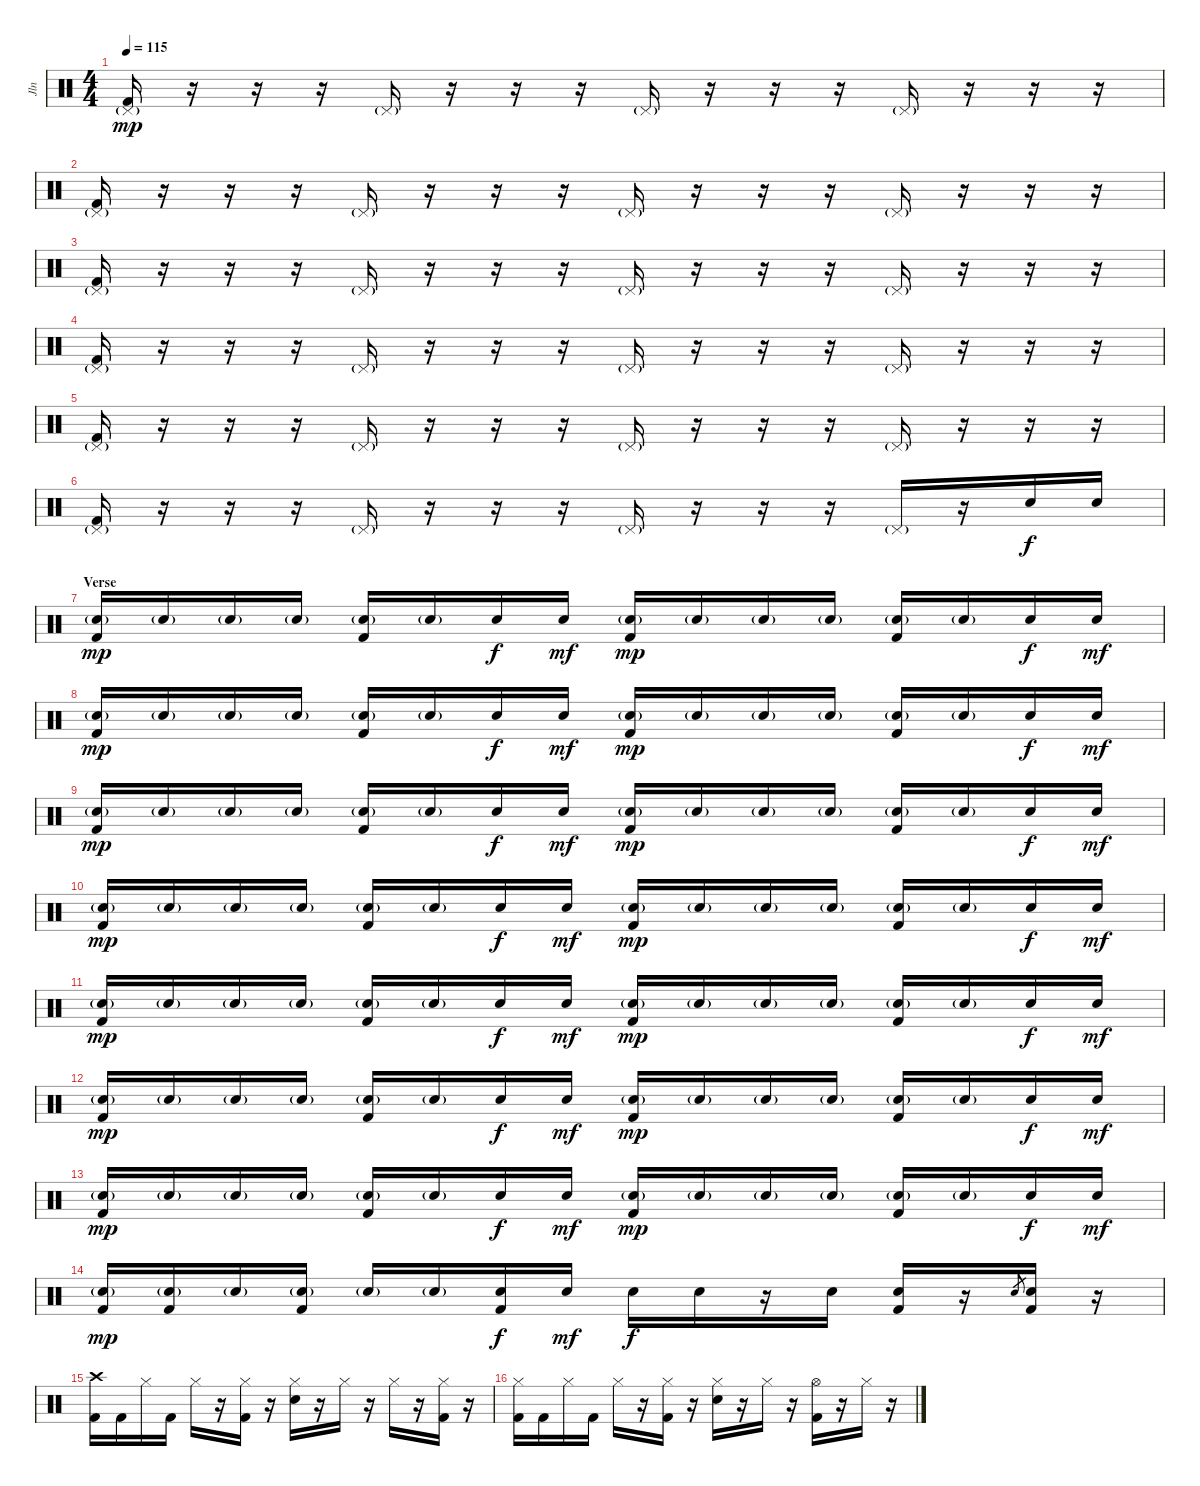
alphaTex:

\track ("Jln" "Jln") {instrument percussion}
\staff {score}
\articulation defaults
\ts (4 4)
\tempo 115
\clef neutral
\ks c
("Pedal Hi-Hat (hit)"{g} "Kick (hit) 2").16{dy mp} r.16 r.16 r.16 "Pedal Hi-Hat (hit)"{g}.16 r.16 r.16 r.16 "Pedal Hi-Hat (hit)"{g}.16 r.16 r.16 r.16 "Pedal Hi-Hat (hit)"{g}.16 r.16 r.16 r.16 |
("Pedal Hi-Hat (hit)"{g} "Kick (hit) 2").16 r.16 r.16 r.16 "Pedal Hi-Hat (hit)"{g}.16 r.16 r.16 r.16 "Pedal Hi-Hat (hit)"{g}.16 r.16 r.16 r.16 "Pedal Hi-Hat (hit)"{g}.16 r.16 r.16 r.16 |
("Pedal Hi-Hat (hit)"{g} "Kick (hit) 2").16 r.16 r.16 r.16 "Pedal Hi-Hat (hit)"{g}.16 r.16 r.16 r.16 "Pedal Hi-Hat (hit)"{g}.16 r.16 r.16 r.16 "Pedal Hi-Hat (hit)"{g}.16 r.16 r.16 r.16 |
("Pedal Hi-Hat (hit)"{g} "Kick (hit) 2").16 r.16 r.16 r.16 "Pedal Hi-Hat (hit)"{g}.16 r.16 r.16 r.16 "Pedal Hi-Hat (hit)"{g}.16 r.16 r.16 r.16 "Pedal Hi-Hat (hit)"{g}.16 r.16 r.16 r.16 |
("Pedal Hi-Hat (hit)"{g} "Kick (hit) 2").16 r.16 r.16 r.16 "Pedal Hi-Hat (hit)"{g}.16 r.16 r.16 r.16 "Pedal Hi-Hat (hit)"{g}.16 r.16 r.16 r.16 "Pedal Hi-Hat (hit)"{g}.16 r.16 r.16 r.16 |
("Pedal Hi-Hat (hit)"{g} "Kick (hit) 2").16 r.16 r.16 r.16 "Pedal Hi-Hat (hit)"{g}.16 r.16 r.16 r.16 "Pedal Hi-Hat (hit)"{g}.16 r.16 r.16 r.16 "Pedal Hi-Hat (hit)"{g}.16 r.16 "Electric Snare (hit)".16{dy f} "Electric Snare (hit)".16 |
\section ("" "Verse")
("Electric Snare (hit)"{g} "Kick (hit) 2").16{dy mp} "Electric Snare (hit)"{g}.16 "Electric Snare (hit)"{g}.16 "Electric Snare (hit)"{g}.16 ("Electric Snare (hit)"{g} "Kick (hit) 2").16 "Electric Snare (hit)"{g}.16 "Electric Snare (hit)".16{dy f} "Electric Snare (hit)".16{dy mf} ("Electric Snare (hit)"{g} "Kick (hit) 2").16{dy mp} "Electric Snare (hit)"{g}.16 "Electric Snare (hit)"{g}.16 "Electric Snare (hit)"{g}.16 ("Electric Snare (hit)"{g} "Kick (hit) 2").16 "Electric Snare (hit)"{g}.16 "Electric Snare (hit)".16{dy f} "Electric Snare (hit)".16{dy mf} |
("Electric Snare (hit)"{g} "Kick (hit) 2").16{dy mp} "Electric Snare (hit)"{g}.16 "Electric Snare (hit)"{g}.16 "Electric Snare (hit)"{g}.16 ("Electric Snare (hit)"{g} "Kick (hit) 2").16 "Electric Snare (hit)"{g}.16 "Electric Snare (hit)".16{dy f} "Electric Snare (hit)".16{dy mf} ("Electric Snare (hit)"{g} "Kick (hit) 2").16{dy mp} "Electric Snare (hit)"{g}.16 "Electric Snare (hit)"{g}.16 "Electric Snare (hit)"{g}.16 ("Electric Snare (hit)"{g} "Kick (hit) 2").16 "Electric Snare (hit)"{g}.16 "Electric Snare (hit)".16{dy f} "Electric Snare (hit)".16{dy mf} |
("Electric Snare (hit)"{g} "Kick (hit) 2").16{dy mp} "Electric Snare (hit)"{g}.16 "Electric Snare (hit)"{g}.16 "Electric Snare (hit)"{g}.16 ("Electric Snare (hit)"{g} "Kick (hit) 2").16 "Electric Snare (hit)"{g}.16 "Electric Snare (hit)".16{dy f} "Electric Snare (hit)".16{dy mf} ("Electric Snare (hit)"{g} "Kick (hit) 2").16{dy mp} "Electric Snare (hit)"{g}.16 "Electric Snare (hit)"{g}.16 "Electric Snare (hit)"{g}.16 ("Electric Snare (hit)"{g} "Kick (hit) 2").16 "Electric Snare (hit)"{g}.16 "Electric Snare (hit)".16{dy f} "Electric Snare (hit)".16{dy mf} |
("Electric Snare (hit)"{g} "Kick (hit) 2").16{dy mp} "Electric Snare (hit)"{g}.16 "Electric Snare (hit)"{g}.16 "Electric Snare (hit)"{g}.16 ("Electric Snare (hit)"{g} "Kick (hit) 2").16 "Electric Snare (hit)"{g}.16 "Electric Snare (hit)".16{dy f} "Electric Snare (hit)".16{dy mf} ("Electric Snare (hit)"{g} "Kick (hit) 2").16{dy mp} "Electric Snare (hit)"{g}.16 "Electric Snare (hit)"{g}.16 "Electric Snare (hit)"{g}.16 ("Electric Snare (hit)"{g} "Kick (hit) 2").16 "Electric Snare (hit)"{g}.16 "Electric Snare (hit)".16{dy f} "Electric Snare (hit)".16{dy mf} |
("Electric Snare (hit)"{g} "Kick (hit) 2").16{dy mp} "Electric Snare (hit)"{g}.16 "Electric Snare (hit)"{g}.16 "Electric Snare (hit)"{g}.16 ("Electric Snare (hit)"{g} "Kick (hit) 2").16 "Electric Snare (hit)"{g}.16 "Electric Snare (hit)".16{dy f} "Electric Snare (hit)".16{dy mf} ("Electric Snare (hit)"{g} "Kick (hit) 2").16{dy mp} "Electric Snare (hit)"{g}.16 "Electric Snare (hit)"{g}.16 "Electric Snare (hit)"{g}.16 ("Electric Snare (hit)"{g} "Kick (hit) 2").16 "Electric Snare (hit)"{g}.16 "Electric Snare (hit)".16{dy f} "Electric Snare (hit)".16{dy mf} |
("Electric Snare (hit)"{g} "Kick (hit) 2").16{dy mp} "Electric Snare (hit)"{g}.16 "Electric Snare (hit)"{g}.16 "Electric Snare (hit)"{g}.16 ("Electric Snare (hit)"{g} "Kick (hit) 2").16 "Electric Snare (hit)"{g}.16 "Electric Snare (hit)".16{dy f} "Electric Snare (hit)".16{dy mf} ("Electric Snare (hit)"{g} "Kick (hit) 2").16{dy mp} "Electric Snare (hit)"{g}.16 "Electric Snare (hit)"{g}.16 "Electric Snare (hit)"{g}.16 ("Electric Snare (hit)"{g} "Kick (hit) 2").16 "Electric Snare (hit)"{g}.16 "Electric Snare (hit)".16{dy f} "Electric Snare (hit)".16{dy mf} |
("Electric Snare (hit)"{g} "Kick (hit) 2").16{dy mp} "Electric Snare (hit)"{g}.16 "Electric Snare (hit)"{g}.16 "Electric Snare (hit)"{g}.16 ("Electric Snare (hit)"{g} "Kick (hit) 2").16 "Electric Snare (hit)"{g}.16 "Electric Snare (hit)".16{dy f} "Electric Snare (hit)".16{dy mf} ("Electric Snare (hit)"{g} "Kick (hit) 2").16{dy mp} "Electric Snare (hit)"{g}.16 "Electric Snare (hit)"{g}.16 "Electric Snare (hit)"{g}.16 ("Electric Snare (hit)"{g} "Kick (hit) 2").16 "Electric Snare (hit)"{g}.16 "Electric Snare (hit)".16{dy f} "Electric Snare (hit)".16{dy mf} |
("Electric Snare (hit)"{g} "Kick (hit) 2").16{dy mp} ("Electric Snare (hit)"{g} "Kick (hit) 2").16 "Electric Snare (hit)"{g}.16 ("Electric Snare (hit)"{g} "Kick (hit) 2").16 "Electric Snare (hit)"{g}.16 "Electric Snare (hit)"{g}.16 ("Electric Snare (hit)" "Kick (hit) 2").16{dy f} "Electric Snare (hit)".16{dy mf} "Electric Snare (hit)".16{dy f} "Electric Snare (hit)".16 r.16 "Electric Snare (hit)".16 ("Electric Snare (hit)" "Kick (hit) 2").16 r.16 "Electric Snare (hit)".8{gr} ("Electric Snare (hit)" "Kick (hit) 2").16 r.16 |
("Crash high (hit)" "Kick (hit) 2").16 "Kick (hit) 2".16 "Hi-Hat (closed)".16 "Kick (hit) 2".16 "Hi-Hat (closed)".16 r.16 ("Hi-Hat (closed)" "Kick (hit) 2").16 r.16 ("Hi-Hat (closed)" "Electric Snare (hit)").16 r.16 "Hi-Hat (closed)".16 r.16 "Hi-Hat (closed)".16 r.16 ("Hi-Hat (closed)" "Kick (hit) 2").16 r.16 |
("Hi-Hat (closed)" "Kick (hit) 2").16 "Kick (hit) 2".16 "Hi-Hat (closed)".16 "Kick (hit) 2".16 "Hi-Hat (closed)".16 r.16 ("Hi-Hat (closed)" "Kick (hit) 2").16 r.16 ("Hi-Hat (closed)" "Electric Snare (hit)").16 r.16 "Hi-Hat (closed)".16 r.16 ("Hi-Hat (open)" "Kick (hit) 2").16 r.16 "Hi-Hat (closed)".16 r.16
